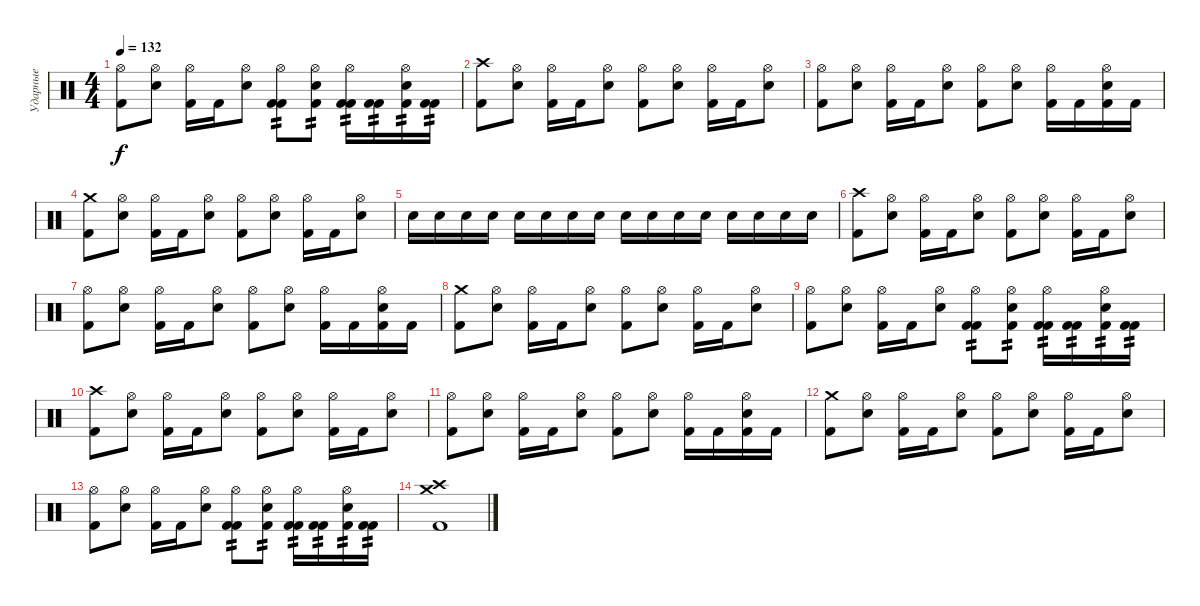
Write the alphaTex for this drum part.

\track ("Ударные" "Ударные") {instrument percussion}
\staff {score}
\articulation defaults
\ts (4 4)
\tempo 132
\clef neutral
\ks c
("Hi-Hat (open)" "Kick (hit) 2").8{dy f} ("Hi-Hat (open)" "Electric Snare (hit)").8 ("Hi-Hat (open)" "Kick (hit) 2").16 "Kick (hit) 2".16 ("Hi-Hat (open)" "Electric Snare (hit)").8 ("Hi-Hat (open)" "Kick (hit) 2" "Kick (hit) 2").8{tp 2} ("Hi-Hat (open)" "Electric Snare (hit)" "Kick (hit) 2").8{tp 2} ("Hi-Hat (open)" "Kick (hit) 2" "Kick (hit) 2").16{tp 2} ("Kick (hit) 2" "Kick (hit) 2").16{tp 2} ("Hi-Hat (open)" "Kick (hit) 2" "Electric Snare (hit)").16{tp 2} ("Kick (hit) 2" "Kick (hit) 2").16{tp 2} |
("Crash high (hit)" "Kick (hit) 2").8 ("Hi-Hat (open)" "Electric Snare (hit)").8 ("Hi-Hat (open)" "Kick (hit) 2").16 "Kick (hit) 2".16 ("Hi-Hat (open)" "Electric Snare (hit)").8 ("Hi-Hat (open)" "Kick (hit) 2").8 ("Hi-Hat (open)" "Electric Snare (hit)").8 ("Hi-Hat (open)" "Kick (hit) 2").16 "Kick (hit) 2".16 ("Hi-Hat (open)" "Electric Snare (hit)").8 |
("Hi-Hat (open)" "Kick (hit) 2").8 ("Hi-Hat (open)" "Electric Snare (hit)").8 ("Hi-Hat (open)" "Kick (hit) 2").16 "Kick (hit) 2".16 ("Hi-Hat (open)" "Electric Snare (hit)").8 ("Hi-Hat (open)" "Kick (hit) 2").8 ("Hi-Hat (open)" "Electric Snare (hit)").8 ("Hi-Hat (open)" "Kick (hit) 2").16 "Kick (hit) 2".16 ("Hi-Hat (open)" "Kick (hit) 2" "Electric Snare (hit)").16 "Kick (hit) 2".16 |
("Crash medium (hit)" "Kick (hit) 2").8 ("Hi-Hat (open)" "Electric Snare (hit)").8 ("Hi-Hat (open)" "Kick (hit) 2").16 "Kick (hit) 2".16 ("Hi-Hat (open)" "Electric Snare (hit)").8 ("Hi-Hat (open)" "Kick (hit) 2").8 ("Hi-Hat (open)" "Electric Snare (hit)").8 ("Hi-Hat (open)" "Kick (hit) 2").16 "Kick (hit) 2".16 ("Hi-Hat (open)" "Electric Snare (hit)").8 |
"Electric Snare (hit)".16 "Electric Snare (hit)".16 "Electric Snare (hit)".16 "Electric Snare (hit)".16 "Electric Snare (hit)".16 "Electric Snare (hit)".16 "Electric Snare (hit)".16 "Electric Snare (hit)".16 "Electric Snare (hit)".16 "Electric Snare (hit)".16 "Electric Snare (hit)".16 "Electric Snare (hit)".16 "Electric Snare (hit)".16 "Electric Snare (hit)".16 "Electric Snare (hit)".16 "Electric Snare (hit)".16 |
("Crash high (hit)" "Kick (hit) 2").8 ("Hi-Hat (open)" "Electric Snare (hit)").8 ("Hi-Hat (open)" "Kick (hit) 2").16 "Kick (hit) 2".16 ("Hi-Hat (open)" "Electric Snare (hit)").8 ("Hi-Hat (open)" "Kick (hit) 2").8 ("Hi-Hat (open)" "Electric Snare (hit)").8 ("Hi-Hat (open)" "Kick (hit) 2").16 "Kick (hit) 2".16 ("Hi-Hat (open)" "Electric Snare (hit)").8 |
("Hi-Hat (open)" "Kick (hit) 2").8 ("Hi-Hat (open)" "Electric Snare (hit)").8 ("Hi-Hat (open)" "Kick (hit) 2").16 "Kick (hit) 2".16 ("Hi-Hat (open)" "Electric Snare (hit)").8 ("Hi-Hat (open)" "Kick (hit) 2").8 ("Hi-Hat (open)" "Electric Snare (hit)").8 ("Hi-Hat (open)" "Kick (hit) 2").16 "Kick (hit) 2".16 ("Hi-Hat (open)" "Kick (hit) 2" "Electric Snare (hit)").16 "Kick (hit) 2".16 |
("Crash medium (hit)" "Kick (hit) 2").8 ("Hi-Hat (open)" "Electric Snare (hit)").8 ("Hi-Hat (open)" "Kick (hit) 2").16 "Kick (hit) 2".16 ("Hi-Hat (open)" "Electric Snare (hit)").8 ("Hi-Hat (open)" "Kick (hit) 2").8 ("Hi-Hat (open)" "Electric Snare (hit)").8 ("Hi-Hat (open)" "Kick (hit) 2").16 "Kick (hit) 2".16 ("Hi-Hat (open)" "Electric Snare (hit)").8 |
("Hi-Hat (open)" "Kick (hit) 2").8 ("Hi-Hat (open)" "Electric Snare (hit)").8 ("Hi-Hat (open)" "Kick (hit) 2").16 "Kick (hit) 2".16 ("Hi-Hat (open)" "Electric Snare (hit)").8 ("Hi-Hat (open)" "Kick (hit) 2" "Kick (hit) 2").8{tp 2} ("Hi-Hat (open)" "Electric Snare (hit)" "Kick (hit) 2").8{tp 2} ("Hi-Hat (open)" "Kick (hit) 2" "Kick (hit) 2").16{tp 2} ("Kick (hit) 2" "Kick (hit) 2").16{tp 2} ("Hi-Hat (open)" "Kick (hit) 2" "Electric Snare (hit)").16{tp 2} ("Kick (hit) 2" "Kick (hit) 2").16{tp 2} |
("Crash high (hit)" "Kick (hit) 2").8 ("Hi-Hat (open)" "Electric Snare (hit)").8 ("Hi-Hat (open)" "Kick (hit) 2").16 "Kick (hit) 2".16 ("Hi-Hat (open)" "Electric Snare (hit)").8 ("Hi-Hat (open)" "Kick (hit) 2").8 ("Hi-Hat (open)" "Electric Snare (hit)").8 ("Hi-Hat (open)" "Kick (hit) 2").16 "Kick (hit) 2".16 ("Hi-Hat (open)" "Electric Snare (hit)").8 |
("Hi-Hat (open)" "Kick (hit) 2").8 ("Hi-Hat (open)" "Electric Snare (hit)").8 ("Hi-Hat (open)" "Kick (hit) 2").16 "Kick (hit) 2".16 ("Hi-Hat (open)" "Electric Snare (hit)").8 ("Hi-Hat (open)" "Kick (hit) 2").8 ("Hi-Hat (open)" "Electric Snare (hit)").8 ("Hi-Hat (open)" "Kick (hit) 2").16 "Kick (hit) 2".16 ("Hi-Hat (open)" "Kick (hit) 2" "Electric Snare (hit)").16 "Kick (hit) 2".16 |
("Crash medium (hit)" "Kick (hit) 2").8 ("Hi-Hat (open)" "Electric Snare (hit)").8 ("Hi-Hat (open)" "Kick (hit) 2").16 "Kick (hit) 2".16 ("Hi-Hat (open)" "Electric Snare (hit)").8 ("Hi-Hat (open)" "Kick (hit) 2").8 ("Hi-Hat (open)" "Electric Snare (hit)").8 ("Hi-Hat (open)" "Kick (hit) 2").16 "Kick (hit) 2".16 ("Hi-Hat (open)" "Electric Snare (hit)").8 |
("Hi-Hat (open)" "Kick (hit) 2").8 ("Hi-Hat (open)" "Electric Snare (hit)").8 ("Hi-Hat (open)" "Kick (hit) 2").16 "Kick (hit) 2".16 ("Hi-Hat (open)" "Electric Snare (hit)").8 ("Hi-Hat (open)" "Kick (hit) 2" "Kick (hit) 2").8{tp 2} ("Hi-Hat (open)" "Electric Snare (hit)" "Kick (hit) 2").8{tp 2} ("Hi-Hat (open)" "Kick (hit) 2" "Kick (hit) 2").16{tp 2} ("Kick (hit) 2" "Kick (hit) 2").16{tp 2} ("Hi-Hat (open)" "Kick (hit) 2" "Electric Snare (hit)").16{tp 2} ("Kick (hit) 2" "Kick (hit) 2").16{tp 2} |
("Crash high (hit)" "Crash medium (hit)" "Kick (hit) 2").1
